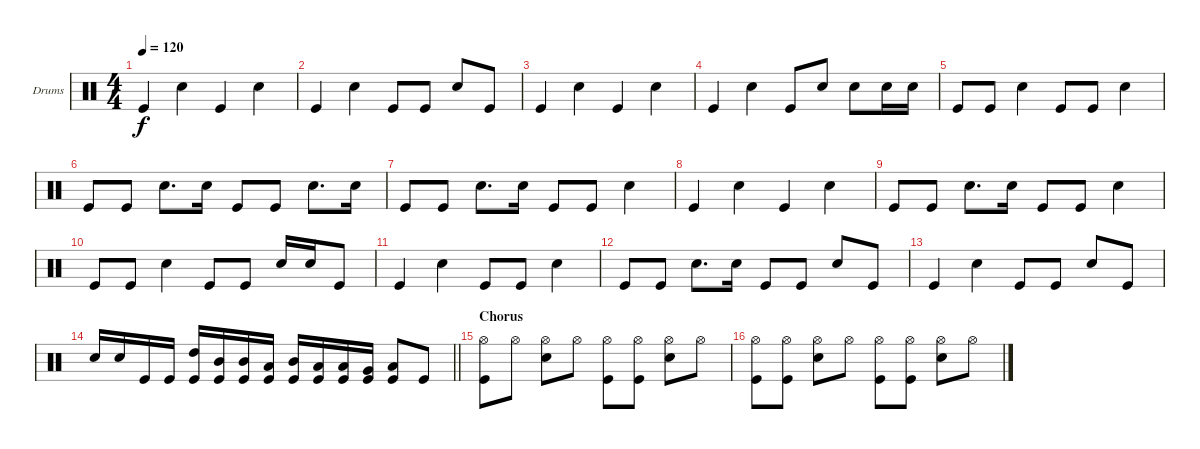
\bracketExtendMode groupsimilarinstruments
\firstSystemTrackNameOrientation horizontal
\otherSystemsTrackNameOrientation horizontal
\track ("Drumkit" "Drums") {instrument percussion}
\staff {score}
\articulation defaults
\ts (4 4)
\tempo 120
\clef neutral
\ks c "Kick (hit)".4{dy f} "Snare (hit) 2".4 "Kick (hit)".4 "Snare (hit) 2".4
|
"Kick (hit)".4 "Snare (hit) 2".4 "Kick (hit)".8 "Kick (hit)".8 "Snare (hit) 2".8 "Kick (hit)".8 |
"Kick (hit)".4 "Snare (hit) 2".4 "Kick (hit)".4 "Snare (hit) 2".4 |
"Kick (hit)".4 "Snare (hit) 2".4 "Kick (hit)".8 "Snare (hit) 2".8 "Snare (hit) 2".8 "Snare (hit) 2".16 "Snare (hit) 2".16 |
"Kick (hit)".8 "Kick (hit)".8 "Snare (hit) 2".4 "Kick (hit)".8 "Kick (hit)".8 "Snare (hit) 2".4 |
"Kick (hit)".8 "Kick (hit)".8 "Snare (hit) 2".8{d} "Snare (hit) 2".16 "Kick (hit)".8 "Kick (hit)".8 "Snare (hit) 2".8{d} "Snare (hit) 2".16 |
"Kick (hit)".8 "Kick (hit)".8 "Snare (hit) 2".8{d} "Snare (hit) 2".16 "Kick (hit)".8 "Kick (hit)".8 "Snare (hit) 2".4 |
"Kick (hit)".4 "Snare (hit) 2".4 "Kick (hit)".4 "Snare (hit) 2".4 |
"Kick (hit)".8 "Kick (hit)".8 "Snare (hit) 2".8{d} "Snare (hit) 2".16 "Kick (hit)".8 "Kick (hit)".8 "Snare (hit) 2".4 |
"Kick (hit)".8 "Kick (hit)".8 "Snare (hit) 2".4 "Kick (hit)".8 "Kick (hit)".8 "Snare (hit) 2".16 "Snare (hit) 2".16 "Kick (hit)".8 |
"Kick (hit)".4 "Snare (hit) 2".4 "Kick (hit)".8 "Kick (hit)".8 "Snare (hit) 2".4 |
"Kick (hit)".8 "Kick (hit)".8 "Snare (hit) 2".8{d} "Snare (hit) 2".16 "Kick (hit)".8 "Kick (hit)".8 "Snare (hit) 2".8 "Kick (hit)".8 |
"Kick (hit)".4 "Snare (hit) 2".4 "Kick (hit)".8 "Kick (hit)".8 "Snare (hit) 2".8 "Kick (hit)".8 |
\barLineRight lightlight "Snare (hit) 2".16 "Snare (hit) 2".16 "Kick (hit)".16 "Kick (hit)".16
("Kick (hit)" "High Tom (hit)").16 ("Kick (hit)" "Mid Tom (hit)").16 ("Kick (hit)" "Mid Tom (hit)").16 ("Kick (hit)" "Low Tom (hit)").16 ("Kick (hit)" "Mid Tom (hit)").16 ("Kick (hit)" "Low Tom (hit)").16 ("Kick (hit)" "Low Tom (hit)").16 ("Kick (hit)" "Very Low Tom (hit)").16 ("Kick (hit)" "Low Tom (hit)").8 "Kick (hit)".8 |
\section ("" "Chorus")
("Kick (hit)" "Hi-Hat (open)").8 "Hi-Hat (open)".8 ("Snare (hit) 2" "Hi-Hat (open)").8 "Hi-Hat (open)".8 ("Kick (hit)" "Hi-Hat (open)").8 ("Kick (hit)" "Hi-Hat (open)").8 ("Snare (hit) 2" "Hi-Hat (open)").8 "Hi-Hat (open)".8 |
("Kick (hit)" "Hi-Hat (open)").8 ("Kick (hit)" "Hi-Hat (open)").8 ("Snare (hit) 2" "Hi-Hat (open)").8 "Hi-Hat (open)".8 ("Kick (hit)" "Hi-Hat (open)").8 ("Kick (hit)" "Hi-Hat (open)").8 ("Snare (hit) 2" "Hi-Hat (open)").8 "Hi-Hat (open)".8
